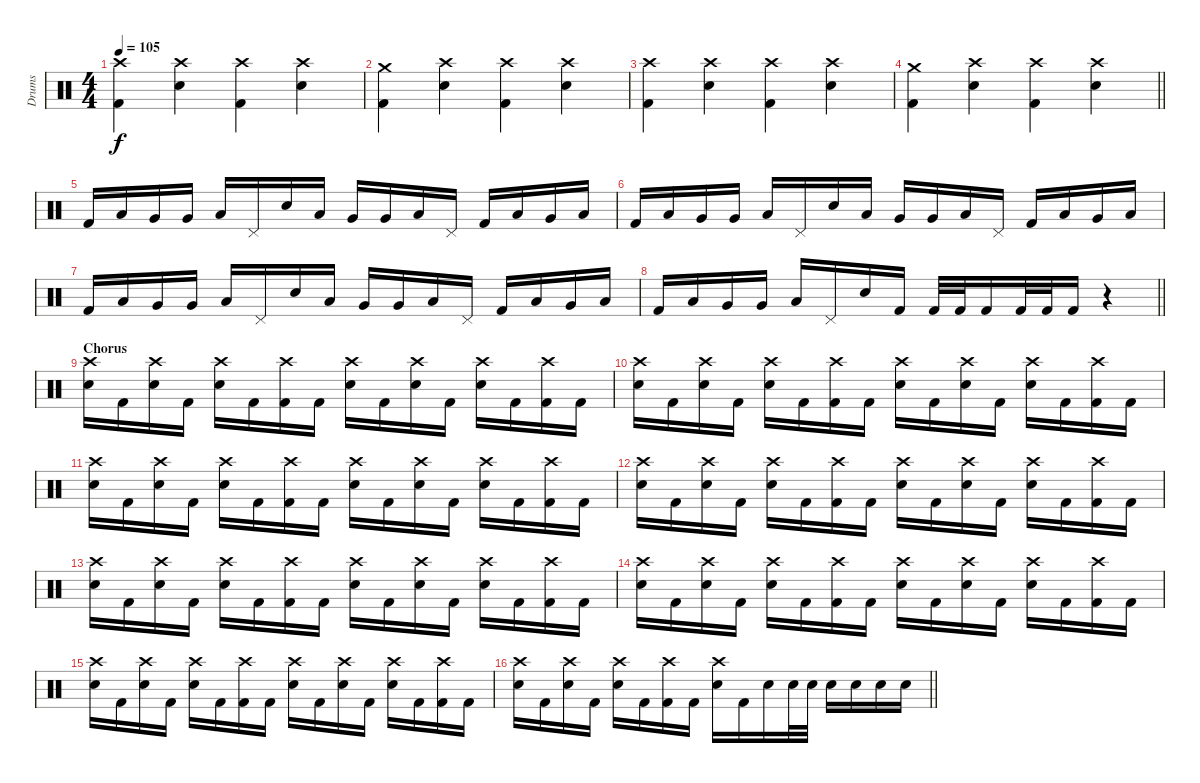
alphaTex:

\track ("Drums" "Drums") {instrument percussion}
\staff {score}
\articulation defaults
\ts (4 4)
\tempo 105
\clef neutral
\ks c
("Crash high (hit)" "Kick (hit) 2").4{dy f} ("Crash high (hit)" "Electric Snare (hit)").4 ("Crash high (hit)" "Kick (hit) 2").4 ("Crash high (hit)" "Electric Snare (hit)").4 |
("Crash medium (hit)" "Kick (hit) 2").4 ("Crash high (hit)" "Electric Snare (hit)").4 ("Crash high (hit)" "Kick (hit) 2").4 ("Crash high (hit)" "Electric Snare (hit)").4 |
("Crash high (hit)" "Kick (hit) 2").4 ("Crash high (hit)" "Electric Snare (hit)").4 ("Crash high (hit)" "Kick (hit) 2").4 ("Crash high (hit)" "Electric Snare (hit)").4 |
\barLineRight lightlight
("Crash medium (hit)" "Kick (hit) 2").4 ("Crash high (hit)" "Electric Snare (hit)").4 ("Crash high (hit)" "Kick (hit) 2").4 ("Crash high (hit)" "Electric Snare (hit)").4 |
"Kick (hit) 2".16 "Low Tom (hit)".16 "Very Low Tom (hit)".16 "Very Low Tom (hit)".16 "Low Floor Tom (hit)".16 "Pedal Hi-Hat (hit)".16 "Electric Snare (hit)".16 "Low Tom (hit)".16 "Very Low Tom (hit)".16 "Very Low Tom (hit)".16 "Low Floor Tom (hit)".16 "Pedal Hi-Hat (hit)".16 "Kick (hit) 2".16 "Low Tom (hit)".16 "Very Low Tom (hit)".16 "Low Floor Tom (hit)".16 |
"Kick (hit) 2".16 "Low Tom (hit)".16 "Very Low Tom (hit)".16 "Very Low Tom (hit)".16 "Low Floor Tom (hit)".16 "Pedal Hi-Hat (hit)".16 "Electric Snare (hit)".16 "Low Tom (hit)".16 "Very Low Tom (hit)".16 "Very Low Tom (hit)".16 "Low Floor Tom (hit)".16 "Pedal Hi-Hat (hit)".16 "Kick (hit) 2".16 "Low Tom (hit)".16 "Very Low Tom (hit)".16 "Low Floor Tom (hit)".16 |
"Kick (hit) 2".16 "Low Tom (hit)".16 "Very Low Tom (hit)".16 "Very Low Tom (hit)".16 "Low Floor Tom (hit)".16 "Pedal Hi-Hat (hit)".16 "Electric Snare (hit)".16 "Low Tom (hit)".16 "Very Low Tom (hit)".16 "Very Low Tom (hit)".16 "Low Floor Tom (hit)".16 "Pedal Hi-Hat (hit)".16 "Kick (hit) 2".16 "Low Tom (hit)".16 "Very Low Tom (hit)".16 "Low Floor Tom (hit)".16 |
\barLineRight lightlight "Kick (hit) 2".16 "Low Tom (hit)".16 "Very Low Tom (hit)".16 "Very Low Tom (hit)".16 "Low Floor Tom (hit)".16 "Pedal Hi-Hat (hit)".16 "Electric Snare (hit)".16 "Kick (hit) 2".16 "Kick (hit) 2".32 "Kick (hit) 2".32 "Kick (hit) 2".16 "Kick (hit) 2".32 "Kick (hit) 2".32 "Kick (hit) 2".16
r.4 |
\section ("" "Chorus")
("Crash high (hit)" "Electric Snare (hit)").16 "Kick (hit) 2".16 ("Crash high (hit)" "Electric Snare (hit)").16 "Kick (hit) 2".16 ("Crash high (hit)" "Electric Snare (hit)").16 "Kick (hit) 2".16 ("Crash high (hit)" "Kick (hit) 2").16 "Kick (hit) 2".16 ("Crash high (hit)" "Electric Snare (hit)").16 "Kick (hit) 2".16 ("Crash high (hit)" "Electric Snare (hit)").16 "Kick (hit) 2".16 ("Crash high (hit)" "Electric Snare (hit)").16 "Kick (hit) 2".16 ("Crash high (hit)" "Kick (hit) 2").16 "Kick (hit) 2".16 |
("Crash high (hit)" "Electric Snare (hit)").16 "Kick (hit) 2".16 ("Crash high (hit)" "Electric Snare (hit)").16 "Kick (hit) 2".16 ("Crash high (hit)" "Electric Snare (hit)").16 "Kick (hit) 2".16 ("Crash high (hit)" "Kick (hit) 2").16 "Kick (hit) 2".16 ("Crash high (hit)" "Electric Snare (hit)").16 "Kick (hit) 2".16 ("Crash high (hit)" "Electric Snare (hit)").16 "Kick (hit) 2".16 ("Crash high (hit)" "Electric Snare (hit)").16 "Kick (hit) 2".16 ("Crash high (hit)" "Kick (hit) 2").16 "Kick (hit) 2".16 |
("Crash high (hit)" "Electric Snare (hit)").16 "Kick (hit) 2".16 ("Crash high (hit)" "Electric Snare (hit)").16 "Kick (hit) 2".16 ("Crash high (hit)" "Electric Snare (hit)").16 "Kick (hit) 2".16 ("Crash high (hit)" "Kick (hit) 2").16 "Kick (hit) 2".16 ("Crash high (hit)" "Electric Snare (hit)").16 "Kick (hit) 2".16 ("Crash high (hit)" "Electric Snare (hit)").16 "Kick (hit) 2".16 ("Crash high (hit)" "Electric Snare (hit)").16 "Kick (hit) 2".16 ("Crash high (hit)" "Kick (hit) 2").16 "Kick (hit) 2".16 |
("Crash high (hit)" "Electric Snare (hit)").16 "Kick (hit) 2".16 ("Crash high (hit)" "Electric Snare (hit)").16 "Kick (hit) 2".16 ("Crash high (hit)" "Electric Snare (hit)").16 "Kick (hit) 2".16 ("Crash high (hit)" "Kick (hit) 2").16 "Kick (hit) 2".16 ("Crash high (hit)" "Electric Snare (hit)").16 "Kick (hit) 2".16 ("Crash high (hit)" "Electric Snare (hit)").16 "Kick (hit) 2".16 ("Crash high (hit)" "Electric Snare (hit)").16 "Kick (hit) 2".16 ("Crash high (hit)" "Kick (hit) 2").16 "Kick (hit) 2".16 |
("Crash high (hit)" "Electric Snare (hit)").16 "Kick (hit) 2".16 ("Crash high (hit)" "Electric Snare (hit)").16 "Kick (hit) 2".16 ("Crash high (hit)" "Electric Snare (hit)").16 "Kick (hit) 2".16 ("Crash high (hit)" "Kick (hit) 2").16 "Kick (hit) 2".16 ("Crash high (hit)" "Electric Snare (hit)").16 "Kick (hit) 2".16 ("Crash high (hit)" "Electric Snare (hit)").16 "Kick (hit) 2".16 ("Crash high (hit)" "Electric Snare (hit)").16 "Kick (hit) 2".16 ("Crash high (hit)" "Kick (hit) 2").16 "Kick (hit) 2".16 |
("Crash high (hit)" "Electric Snare (hit)").16 "Kick (hit) 2".16 ("Crash high (hit)" "Electric Snare (hit)").16 "Kick (hit) 2".16 ("Crash high (hit)" "Electric Snare (hit)").16 "Kick (hit) 2".16 ("Crash high (hit)" "Kick (hit) 2").16 "Kick (hit) 2".16 ("Crash high (hit)" "Electric Snare (hit)").16 "Kick (hit) 2".16 ("Crash high (hit)" "Electric Snare (hit)").16 "Kick (hit) 2".16 ("Crash high (hit)" "Electric Snare (hit)").16 "Kick (hit) 2".16 ("Crash high (hit)" "Kick (hit) 2").16 "Kick (hit) 2".16 |
("Crash high (hit)" "Electric Snare (hit)").16 "Kick (hit) 2".16 ("Crash high (hit)" "Electric Snare (hit)").16 "Kick (hit) 2".16 ("Crash high (hit)" "Electric Snare (hit)").16 "Kick (hit) 2".16 ("Crash high (hit)" "Kick (hit) 2").16 "Kick (hit) 2".16 ("Crash high (hit)" "Electric Snare (hit)").16 "Kick (hit) 2".16 ("Crash high (hit)" "Electric Snare (hit)").16 "Kick (hit) 2".16 ("Crash high (hit)" "Electric Snare (hit)").16 "Kick (hit) 2".16 ("Crash high (hit)" "Kick (hit) 2").16 "Kick (hit) 2".16 |
\barLineRight lightlight
("Crash high (hit)" "Electric Snare (hit)").16 "Kick (hit) 2".16 ("Crash high (hit)" "Electric Snare (hit)").16 "Kick (hit) 2".16 ("Crash high (hit)" "Electric Snare (hit)").16 "Kick (hit) 2".16 ("Crash high (hit)" "Kick (hit) 2").16 "Kick (hit) 2".16 ("Crash high (hit)" "Electric Snare (hit)").16 "Kick (hit) 2".16 "Electric Snare (hit)".16 "Electric Snare (hit)".32 "Electric Snare (hit)".32 "Electric Snare (hit)".16 "Electric Snare (hit)".16 "Electric Snare (hit)".16 "Electric Snare (hit)".16
